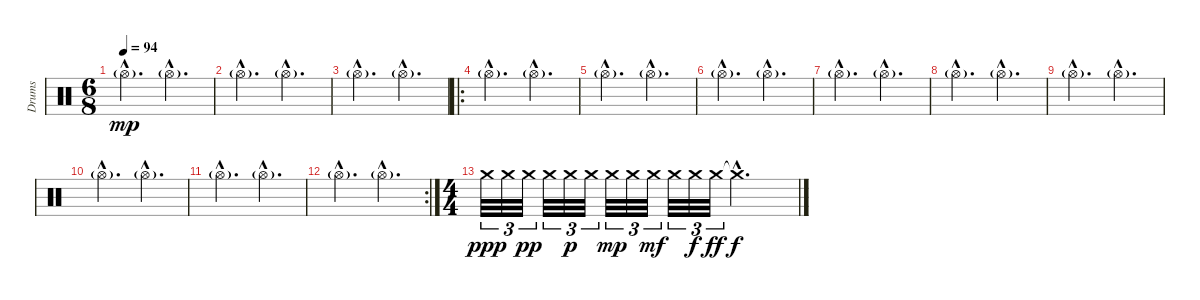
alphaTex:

\track ("Drums" "Drums") {instrument percussion}
\staff {score}
\articulation defaults
\ts (6 8)
\tempo 94
\clef neutral
\ks c "Hi-Hat (open)"{g hac}.4{d dy mp} "Hi-Hat (open)"{g hac}.4{d}
|
"Hi-Hat (open)"{g hac}.4{d} "Hi-Hat (open)"{g hac}.4{d} |
"Hi-Hat (open)"{g hac}.4{d} "Hi-Hat (open)"{g hac}.4{d} |
\ro "Hi-Hat (open)"{g hac}.4{d} "Hi-Hat (open)"{g hac}.4{d}
|
"Hi-Hat (open)"{g hac}.4{d} "Hi-Hat (open)"{g hac}.4{d} |
"Hi-Hat (open)"{g hac}.4{d} "Hi-Hat (open)"{g hac}.4{d} |
"Hi-Hat (open)"{g hac}.4{d} "Hi-Hat (open)"{g hac}.4{d} |
"Hi-Hat (open)"{g hac}.4{d} "Hi-Hat (open)"{g hac}.4{d} |
"Hi-Hat (open)"{g hac}.4{d} "Hi-Hat (open)"{g hac}.4{d} |
"Hi-Hat (open)"{g hac}.4{d} "Hi-Hat (open)"{g hac}.4{d} |
"Hi-Hat (open)"{g hac}.4{d} "Hi-Hat (open)"{g hac}.4{d} |
\rc 2 "Hi-Hat (open)"{g hac}.4{d} "Hi-Hat (open)"{g hac}.4{d}
|
\ts (4 4)
"Crash medium (hit)".32{tu (3 2) dy ppp} "Crash medium (hit)".32{tu (3 2)} "Crash medium (hit)".32{tu (3 2) dy pp} "Crash medium (hit)".32{tu (3 2)} "Crash medium (hit)".32{tu (3 2) dy p} "Crash medium (hit)".32{tu (3 2)} "Crash medium (hit)".32{tu (3 2) dy mp} "Crash medium (hit)".32{tu (3 2)} "Crash medium (hit)".32{tu (3 2) dy mf} "Crash medium (hit)".32{tu (3 2)} "Crash medium (hit)".32{tu (3 2) dy f} "Crash medium (hit)".32{tu (3 2) dy ff} "Crash medium (hit)"{hac t}.2{d dy f}
